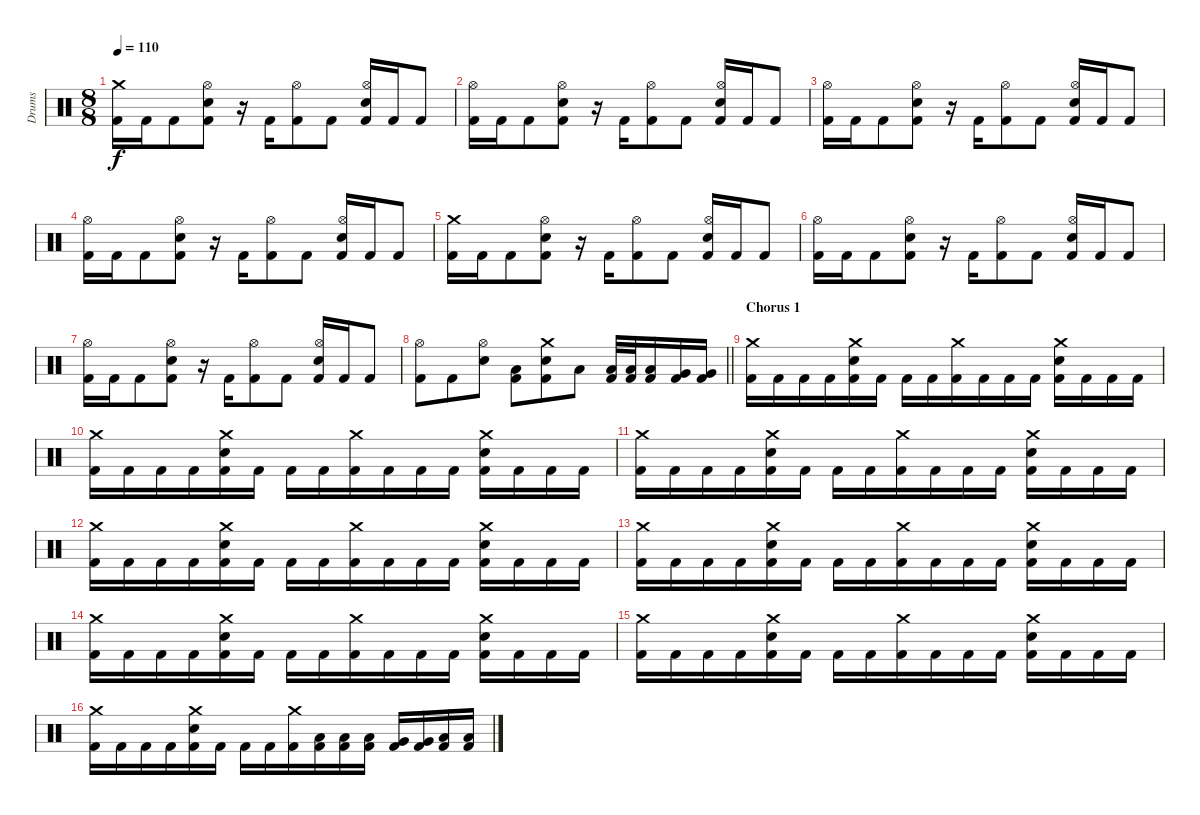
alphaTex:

\track ("Drums" "Drums") {instrument percussion}
\staff {score}
\articulation defaults
\ts (8 8)
\tempo 110
\clef neutral
\ks c
("Crash medium (hit)" "Kick (hit) 2").16{dy f} "Kick (hit) 2".16 "Kick (hit) 2".8 ("Hi-Hat (open)" "Electric Snare (hit)" "Kick (hit) 2").8 r.16 "Kick (hit) 2".16 ("Hi-Hat (open)" "Kick (hit) 2").8 "Kick (hit) 2".8 ("Hi-Hat (open)" "Electric Snare (hit)" "Kick (hit) 2").16 "Kick (hit) 2".16 "Kick (hit) 2".8 |
("Hi-Hat (open)" "Kick (hit) 2").16 "Kick (hit) 2".16 "Kick (hit) 2".8 ("Hi-Hat (open)" "Electric Snare (hit)" "Kick (hit) 2").8 r.16 "Kick (hit) 2".16 ("Hi-Hat (open)" "Kick (hit) 2").8 "Kick (hit) 2".8 ("Hi-Hat (open)" "Electric Snare (hit)" "Kick (hit) 2").16 "Kick (hit) 2".16 "Kick (hit) 2".8 |
("Hi-Hat (open)" "Kick (hit) 2").16 "Kick (hit) 2".16 "Kick (hit) 2".8 ("Hi-Hat (open)" "Electric Snare (hit)" "Kick (hit) 2").8 r.16 "Kick (hit) 2".16 ("Hi-Hat (open)" "Kick (hit) 2").8 "Kick (hit) 2".8 ("Hi-Hat (open)" "Electric Snare (hit)" "Kick (hit) 2").16 "Kick (hit) 2".16 "Kick (hit) 2".8 |
("Hi-Hat (open)" "Kick (hit) 2").16 "Kick (hit) 2".16 "Kick (hit) 2".8 ("Hi-Hat (open)" "Electric Snare (hit)" "Kick (hit) 2").8 r.16 "Kick (hit) 2".16 ("Hi-Hat (open)" "Kick (hit) 2").8 "Kick (hit) 2".8 ("Hi-Hat (open)" "Electric Snare (hit)" "Kick (hit) 2").16 "Kick (hit) 2".16 "Kick (hit) 2".8 |
("Crash medium (hit)" "Kick (hit) 2").16 "Kick (hit) 2".16 "Kick (hit) 2".8 ("Hi-Hat (open)" "Electric Snare (hit)" "Kick (hit) 2").8 r.16 "Kick (hit) 2".16 ("Hi-Hat (open)" "Kick (hit) 2").8 "Kick (hit) 2".8 ("Hi-Hat (open)" "Electric Snare (hit)" "Kick (hit) 2").16 "Kick (hit) 2".16 "Kick (hit) 2".8 |
("Hi-Hat (open)" "Kick (hit) 2").16 "Kick (hit) 2".16 "Kick (hit) 2".8 ("Hi-Hat (open)" "Electric Snare (hit)" "Kick (hit) 2").8 r.16 "Kick (hit) 2".16 ("Hi-Hat (open)" "Kick (hit) 2").8 "Kick (hit) 2".8 ("Hi-Hat (open)" "Electric Snare (hit)" "Kick (hit) 2").16 "Kick (hit) 2".16 "Kick (hit) 2".8 |
("Hi-Hat (open)" "Kick (hit) 2").16 "Kick (hit) 2".16 "Kick (hit) 2".8 ("Hi-Hat (open)" "Electric Snare (hit)" "Kick (hit) 2").8 r.16 "Kick (hit) 2".16 ("Hi-Hat (open)" "Kick (hit) 2").8 "Kick (hit) 2".8 ("Hi-Hat (open)" "Electric Snare (hit)" "Kick (hit) 2").16 "Kick (hit) 2".16 "Kick (hit) 2".8 |
\barLineRight lightlight
("Hi-Hat (open)" "Kick (hit) 2").8 "Kick (hit) 2".8 ("Hi-Hat (open)" "Electric Snare (hit)").8 ("Low Tom (hit)" "Kick (hit) 2").8 ("Crash medium (hit)" "Electric Snare (hit)" "Kick (hit) 2").8 "Low Tom (hit)".8 ("Low Tom (hit)" "Kick (hit) 2").32 ("Low Tom (hit)" "Kick (hit) 2").32 ("Low Tom (hit)" "Kick (hit) 2").16 ("Very Low Tom (hit)" "Kick (hit) 2").16 ("Very Low Tom (hit)" "Kick (hit) 2").16 |
\section ("" "Chorus 1")
("Crash medium (hit)" "Kick (hit) 2").16 "Kick (hit) 2".16 "Kick (hit) 2".16 "Kick (hit) 2".16 ("Crash medium (hit)" "Electric Snare (hit)" "Kick (hit) 2").16 "Kick (hit) 2".16 "Kick (hit) 2".16 "Kick (hit) 2".16 ("Crash medium (hit)" "Kick (hit) 2").16 "Kick (hit) 2".16 "Kick (hit) 2".16 "Kick (hit) 2".16 ("Crash medium (hit)" "Electric Snare (hit)" "Kick (hit) 2").16 "Kick (hit) 2".16 "Kick (hit) 2".16 "Kick (hit) 2".16 |
("Crash medium (hit)" "Kick (hit) 2").16 "Kick (hit) 2".16 "Kick (hit) 2".16 "Kick (hit) 2".16 ("Crash medium (hit)" "Electric Snare (hit)" "Kick (hit) 2").16 "Kick (hit) 2".16 "Kick (hit) 2".16 "Kick (hit) 2".16 ("Crash medium (hit)" "Kick (hit) 2").16 "Kick (hit) 2".16 "Kick (hit) 2".16 "Kick (hit) 2".16 ("Crash medium (hit)" "Electric Snare (hit)" "Kick (hit) 2").16 "Kick (hit) 2".16 "Kick (hit) 2".16 "Kick (hit) 2".16 |
("Crash medium (hit)" "Kick (hit) 2").16 "Kick (hit) 2".16 "Kick (hit) 2".16 "Kick (hit) 2".16 ("Crash medium (hit)" "Electric Snare (hit)" "Kick (hit) 2").16 "Kick (hit) 2".16 "Kick (hit) 2".16 "Kick (hit) 2".16 ("Crash medium (hit)" "Kick (hit) 2").16 "Kick (hit) 2".16 "Kick (hit) 2".16 "Kick (hit) 2".16 ("Crash medium (hit)" "Electric Snare (hit)" "Kick (hit) 2").16 "Kick (hit) 2".16 "Kick (hit) 2".16 "Kick (hit) 2".16 |
("Crash medium (hit)" "Kick (hit) 2").16 "Kick (hit) 2".16 "Kick (hit) 2".16 "Kick (hit) 2".16 ("Crash medium (hit)" "Electric Snare (hit)" "Kick (hit) 2").16 "Kick (hit) 2".16 "Kick (hit) 2".16 "Kick (hit) 2".16 ("Crash medium (hit)" "Kick (hit) 2").16 "Kick (hit) 2".16 "Kick (hit) 2".16 "Kick (hit) 2".16 ("Crash medium (hit)" "Electric Snare (hit)" "Kick (hit) 2").16 "Kick (hit) 2".16 "Kick (hit) 2".16 "Kick (hit) 2".16 |
("Crash medium (hit)" "Kick (hit) 2").16 "Kick (hit) 2".16 "Kick (hit) 2".16 "Kick (hit) 2".16 ("Crash medium (hit)" "Electric Snare (hit)" "Kick (hit) 2").16 "Kick (hit) 2".16 "Kick (hit) 2".16 "Kick (hit) 2".16 ("Crash medium (hit)" "Kick (hit) 2").16 "Kick (hit) 2".16 "Kick (hit) 2".16 "Kick (hit) 2".16 ("Crash medium (hit)" "Electric Snare (hit)" "Kick (hit) 2").16 "Kick (hit) 2".16 "Kick (hit) 2".16 "Kick (hit) 2".16 |
("Crash medium (hit)" "Kick (hit) 2").16 "Kick (hit) 2".16 "Kick (hit) 2".16 "Kick (hit) 2".16 ("Crash medium (hit)" "Electric Snare (hit)" "Kick (hit) 2").16 "Kick (hit) 2".16 "Kick (hit) 2".16 "Kick (hit) 2".16 ("Crash medium (hit)" "Kick (hit) 2").16 "Kick (hit) 2".16 "Kick (hit) 2".16 "Kick (hit) 2".16 ("Crash medium (hit)" "Electric Snare (hit)" "Kick (hit) 2").16 "Kick (hit) 2".16 "Kick (hit) 2".16 "Kick (hit) 2".16 |
("Crash medium (hit)" "Kick (hit) 2").16 "Kick (hit) 2".16 "Kick (hit) 2".16 "Kick (hit) 2".16 ("Crash medium (hit)" "Electric Snare (hit)" "Kick (hit) 2").16 "Kick (hit) 2".16 "Kick (hit) 2".16 "Kick (hit) 2".16 ("Crash medium (hit)" "Kick (hit) 2").16 "Kick (hit) 2".16 "Kick (hit) 2".16 "Kick (hit) 2".16 ("Crash medium (hit)" "Electric Snare (hit)" "Kick (hit) 2").16 "Kick (hit) 2".16 "Kick (hit) 2".16 "Kick (hit) 2".16 |
("Crash medium (hit)" "Kick (hit) 2").16 "Kick (hit) 2".16 "Kick (hit) 2".16 "Kick (hit) 2".16 ("Crash medium (hit)" "Electric Snare (hit)" "Kick (hit) 2").16 "Kick (hit) 2".16 "Kick (hit) 2".16 "Kick (hit) 2".16 ("Crash medium (hit)" "Kick (hit) 2").16 ("Low Tom (hit)" "Kick (hit) 2").16 ("Low Tom (hit)" "Kick (hit) 2").16 ("Low Tom (hit)" "Kick (hit) 2").16 ("Very Low Tom (hit)" "Kick (hit) 2").16 ("Very Low Tom (hit)" "Kick (hit) 2").16 ("Low Floor Tom (hit)" "Kick (hit) 2").16 ("Low Floor Tom (hit)" "Kick (hit) 2").16
